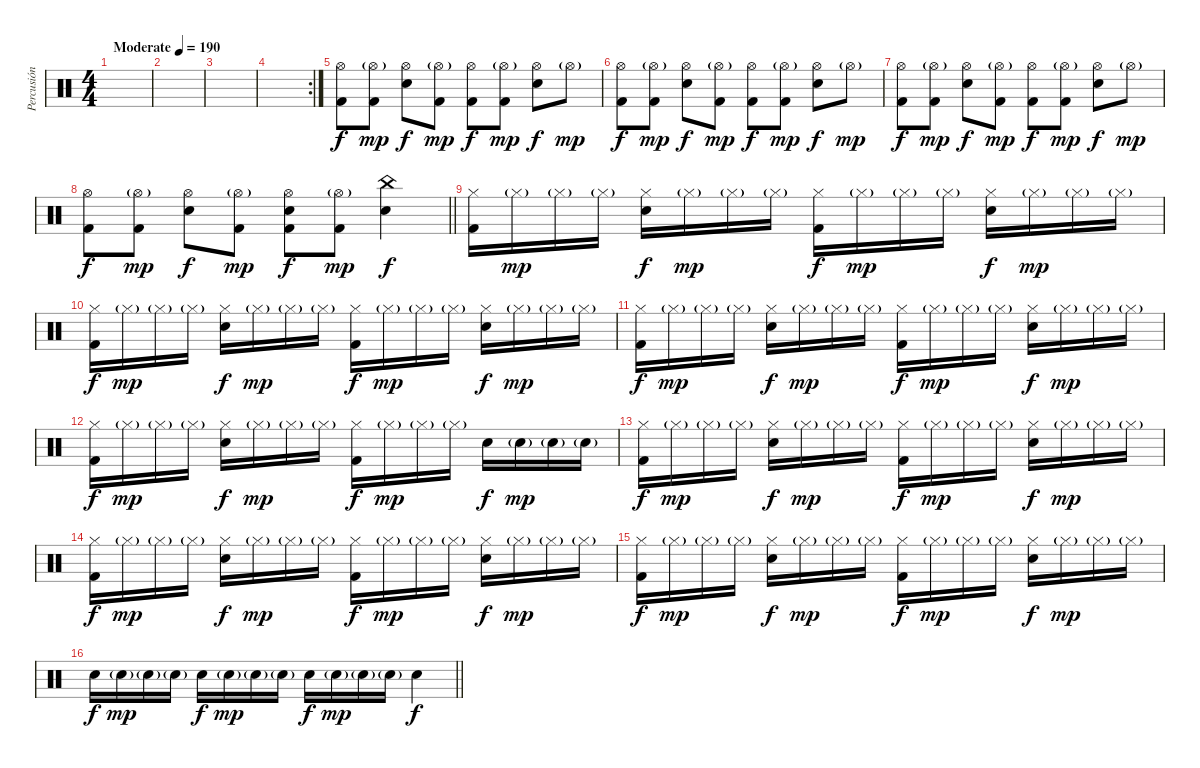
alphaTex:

\track ("Percusión" "Percusión") {instrument percussion}
\staff {score}
\articulation defaults
\ts (4 4)
\tempo (190 "Moderate")
\clef neutral
\ks c
|
|
|
\rc 2
|
("Hi-Hat (open)" "Kick (hit) 2").8 ("Hi-Hat (open)"{g} "Kick (hit) 2").8{dy mp} ("Hi-Hat (open)" "Electric Snare (hit)").8{dy f} ("Hi-Hat (open)"{g} "Kick (hit) 2").8{dy mp} ("Hi-Hat (open)" "Kick (hit) 2").8{dy f} ("Hi-Hat (open)"{g} "Kick (hit) 2").8{dy mp} ("Hi-Hat (open)" "Electric Snare (hit)").8{dy f} "Hi-Hat (open)"{g}.8{dy mp} |
("Hi-Hat (open)" "Kick (hit) 2").8{dy f} ("Hi-Hat (open)"{g} "Kick (hit) 2").8{dy mp} ("Hi-Hat (open)" "Electric Snare (hit)").8{dy f} ("Hi-Hat (open)"{g} "Kick (hit) 2").8{dy mp} ("Hi-Hat (open)" "Kick (hit) 2").8{dy f} ("Hi-Hat (open)"{g} "Kick (hit) 2").8{dy mp} ("Hi-Hat (open)" "Electric Snare (hit)").8{dy f} "Hi-Hat (open)"{g}.8{dy mp} |
("Hi-Hat (open)" "Kick (hit) 2").8{dy f} ("Hi-Hat (open)"{g} "Kick (hit) 2").8{dy mp} ("Hi-Hat (open)" "Electric Snare (hit)").8{dy f} ("Hi-Hat (open)"{g} "Kick (hit) 2").8{dy mp} ("Hi-Hat (open)" "Kick (hit) 2").8{dy f} ("Hi-Hat (open)"{g} "Kick (hit) 2").8{dy mp} ("Hi-Hat (open)" "Electric Snare (hit)").8{dy f} "Hi-Hat (open)"{g}.8{dy mp} |
\barLineRight lightlight
("Hi-Hat (open)" "Kick (hit) 2").8{dy f} ("Hi-Hat (open)"{g} "Kick (hit) 2").8{dy mp} ("Hi-Hat (open)" "Electric Snare (hit)").8{dy f} ("Hi-Hat (open)"{g} "Kick (hit) 2").8{dy mp} ("Hi-Hat (open)" "Electric Snare (hit)" "Kick (hit) 2").8{dy f} ("Hi-Hat (open)"{g} "Kick (hit) 2").8{dy mp} ("China (hit)" "Electric Snare (hit)").4{dy f} |
("Hi-Hat (closed)" "Kick (hit) 2").16 "Hi-Hat (closed)"{g}.16{dy mp} "Hi-Hat (closed)"{g}.16 "Hi-Hat (closed)"{g}.16 ("Hi-Hat (closed)" "Electric Snare (hit)").16{dy f} "Hi-Hat (closed)"{g}.16{dy mp} "Hi-Hat (closed)"{g}.16 "Hi-Hat (closed)"{g}.16 ("Hi-Hat (closed)" "Kick (hit) 2").16{dy f} "Hi-Hat (closed)"{g}.16{dy mp} "Hi-Hat (closed)"{g}.16 "Hi-Hat (closed)"{g}.16 ("Hi-Hat (closed)" "Electric Snare (hit)").16{dy f} "Hi-Hat (closed)"{g}.16{dy mp} "Hi-Hat (closed)"{g}.16 "Hi-Hat (closed)"{g}.16 |
("Hi-Hat (closed)" "Kick (hit) 2").16{dy f} "Hi-Hat (closed)"{g}.16{dy mp} "Hi-Hat (closed)"{g}.16 "Hi-Hat (closed)"{g}.16 ("Hi-Hat (closed)" "Electric Snare (hit)").16{dy f} "Hi-Hat (closed)"{g}.16{dy mp} "Hi-Hat (closed)"{g}.16 "Hi-Hat (closed)"{g}.16 ("Hi-Hat (closed)" "Kick (hit) 2").16{dy f} "Hi-Hat (closed)"{g}.16{dy mp} "Hi-Hat (closed)"{g}.16 "Hi-Hat (closed)"{g}.16 ("Hi-Hat (closed)" "Electric Snare (hit)").16{dy f} "Hi-Hat (closed)"{g}.16{dy mp} "Hi-Hat (closed)"{g}.16 "Hi-Hat (closed)"{g}.16 |
("Hi-Hat (closed)" "Kick (hit) 2").16{dy f} "Hi-Hat (closed)"{g}.16{dy mp} "Hi-Hat (closed)"{g}.16 "Hi-Hat (closed)"{g}.16 ("Hi-Hat (closed)" "Electric Snare (hit)").16{dy f} "Hi-Hat (closed)"{g}.16{dy mp} "Hi-Hat (closed)"{g}.16 "Hi-Hat (closed)"{g}.16 ("Hi-Hat (closed)" "Kick (hit) 2").16{dy f} "Hi-Hat (closed)"{g}.16{dy mp} "Hi-Hat (closed)"{g}.16 "Hi-Hat (closed)"{g}.16 ("Hi-Hat (closed)" "Electric Snare (hit)").16{dy f} "Hi-Hat (closed)"{g}.16{dy mp} "Hi-Hat (closed)"{g}.16 "Hi-Hat (closed)"{g}.16 |
("Hi-Hat (closed)" "Kick (hit) 2").16{dy f} "Hi-Hat (closed)"{g}.16{dy mp} "Hi-Hat (closed)"{g}.16 "Hi-Hat (closed)"{g}.16 ("Hi-Hat (closed)" "Electric Snare (hit)").16{dy f} "Hi-Hat (closed)"{g}.16{dy mp} "Hi-Hat (closed)"{g}.16 "Hi-Hat (closed)"{g}.16 ("Hi-Hat (closed)" "Kick (hit) 2").16{dy f} "Hi-Hat (closed)"{g}.16{dy mp} "Hi-Hat (closed)"{g}.16 "Hi-Hat (closed)"{g}.16 "Electric Snare (hit)".16{dy f} "Electric Snare (hit)"{g}.16{dy mp} "Electric Snare (hit)"{g}.16 "Electric Snare (hit)"{g}.16 |
("Hi-Hat (closed)" "Kick (hit) 2").16{dy f} "Hi-Hat (closed)"{g}.16{dy mp} "Hi-Hat (closed)"{g}.16 "Hi-Hat (closed)"{g}.16 ("Hi-Hat (closed)" "Electric Snare (hit)").16{dy f} "Hi-Hat (closed)"{g}.16{dy mp} "Hi-Hat (closed)"{g}.16 "Hi-Hat (closed)"{g}.16 ("Hi-Hat (closed)" "Kick (hit) 2").16{dy f} "Hi-Hat (closed)"{g}.16{dy mp} "Hi-Hat (closed)"{g}.16 "Hi-Hat (closed)"{g}.16 ("Hi-Hat (closed)" "Electric Snare (hit)").16{dy f} "Hi-Hat (closed)"{g}.16{dy mp} "Hi-Hat (closed)"{g}.16 "Hi-Hat (closed)"{g}.16 |
("Hi-Hat (closed)" "Kick (hit) 2").16{dy f} "Hi-Hat (closed)"{g}.16{dy mp} "Hi-Hat (closed)"{g}.16 "Hi-Hat (closed)"{g}.16 ("Hi-Hat (closed)" "Electric Snare (hit)").16{dy f} "Hi-Hat (closed)"{g}.16{dy mp} "Hi-Hat (closed)"{g}.16 "Hi-Hat (closed)"{g}.16 ("Hi-Hat (closed)" "Kick (hit) 2").16{dy f} "Hi-Hat (closed)"{g}.16{dy mp} "Hi-Hat (closed)"{g}.16 "Hi-Hat (closed)"{g}.16 ("Hi-Hat (closed)" "Electric Snare (hit)").16{dy f} "Hi-Hat (closed)"{g}.16{dy mp} "Hi-Hat (closed)"{g}.16 "Hi-Hat (closed)"{g}.16 |
("Hi-Hat (closed)" "Kick (hit) 2").16{dy f} "Hi-Hat (closed)"{g}.16{dy mp} "Hi-Hat (closed)"{g}.16 "Hi-Hat (closed)"{g}.16 ("Hi-Hat (closed)" "Electric Snare (hit)").16{dy f} "Hi-Hat (closed)"{g}.16{dy mp} "Hi-Hat (closed)"{g}.16 "Hi-Hat (closed)"{g}.16 ("Hi-Hat (closed)" "Kick (hit) 2").16{dy f} "Hi-Hat (closed)"{g}.16{dy mp} "Hi-Hat (closed)"{g}.16 "Hi-Hat (closed)"{g}.16 ("Hi-Hat (closed)" "Electric Snare (hit)").16{dy f} "Hi-Hat (closed)"{g}.16{dy mp} "Hi-Hat (closed)"{g}.16 "Hi-Hat (closed)"{g}.16 |
\barLineRight lightlight "Electric Snare (hit)".16{dy f} "Electric Snare (hit)"{g}.16{dy mp} "Electric Snare (hit)"{g}.16 "Electric Snare (hit)"{g}.16 "Electric Snare (hit)".16{dy f} "Electric Snare (hit)"{g}.16{dy mp} "Electric Snare (hit)"{g}.16 "Electric Snare (hit)"{g}.16 "Electric Snare (hit)".16{dy f} "Electric Snare (hit)"{g}.16{dy mp} "Electric Snare (hit)"{g}.16 "Electric Snare (hit)"{g}.16 "Electric Snare (hit)".4{dy f}
